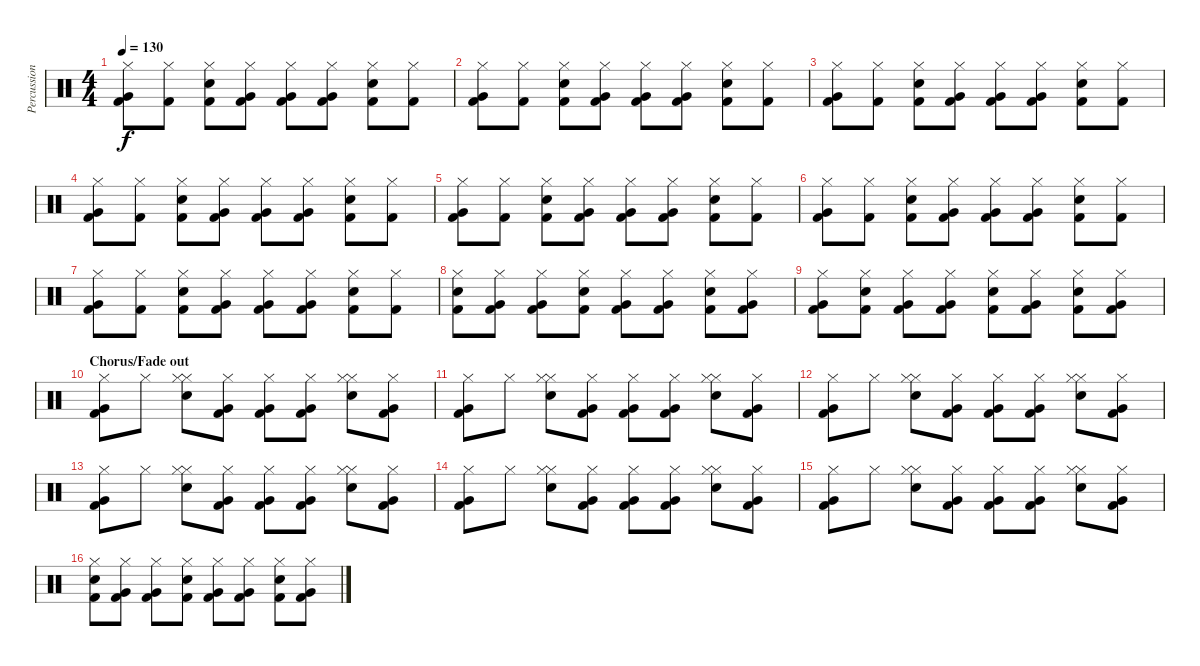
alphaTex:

\track ("Percussion" "Percussion") {instrument percussion}
\staff {score}
\articulation defaults
\ts (4 4)
\tempo 130
\clef neutral
\ks c
("Hi-Hat (closed)" "Very Low Tom (hit)" "Kick (hit) 2").8{dy f} ("Hi-Hat (closed)" "Kick (hit) 2").8 ("Hi-Hat (closed)" "Snare (hit) 2" "Kick (hit) 2").8 ("Hi-Hat (closed)" "Very Low Tom (hit)" "Kick (hit) 2").8 ("Hi-Hat (closed)" "Very Low Tom (hit)" "Kick (hit) 2").8 ("Hi-Hat (closed)" "Very Low Tom (hit)" "Kick (hit) 2").8 ("Hi-Hat (closed)" "Snare (hit) 2" "Kick (hit) 2").8 ("Hi-Hat (closed)" "Kick (hit) 2").8 |
("Hi-Hat (closed)" "Very Low Tom (hit)" "Kick (hit) 2").8 ("Hi-Hat (closed)" "Kick (hit) 2").8 ("Hi-Hat (closed)" "Snare (hit) 2" "Kick (hit) 2").8 ("Hi-Hat (closed)" "Very Low Tom (hit)" "Kick (hit) 2").8 ("Hi-Hat (closed)" "Very Low Tom (hit)" "Kick (hit) 2").8 ("Hi-Hat (closed)" "Very Low Tom (hit)" "Kick (hit) 2").8 ("Hi-Hat (closed)" "Snare (hit) 2" "Kick (hit) 2").8 ("Hi-Hat (closed)" "Kick (hit) 2").8 |
("Hi-Hat (closed)" "Very Low Tom (hit)" "Kick (hit) 2").8 ("Hi-Hat (closed)" "Kick (hit) 2").8 ("Hi-Hat (closed)" "Snare (hit) 2" "Kick (hit) 2").8 ("Hi-Hat (closed)" "Very Low Tom (hit)" "Kick (hit) 2").8 ("Hi-Hat (closed)" "Very Low Tom (hit)" "Kick (hit) 2").8 ("Hi-Hat (closed)" "Very Low Tom (hit)" "Kick (hit) 2").8 ("Hi-Hat (closed)" "Snare (hit) 2" "Kick (hit) 2").8 ("Hi-Hat (closed)" "Kick (hit) 2").8 |
("Hi-Hat (closed)" "Very Low Tom (hit)" "Kick (hit) 2").8 ("Hi-Hat (closed)" "Kick (hit) 2").8 ("Hi-Hat (closed)" "Snare (hit) 2" "Kick (hit) 2").8 ("Hi-Hat (closed)" "Very Low Tom (hit)" "Kick (hit) 2").8 ("Hi-Hat (closed)" "Very Low Tom (hit)" "Kick (hit) 2").8 ("Hi-Hat (closed)" "Very Low Tom (hit)" "Kick (hit) 2").8 ("Hi-Hat (closed)" "Snare (hit) 2" "Kick (hit) 2").8 ("Hi-Hat (closed)" "Kick (hit) 2").8 |
("Hi-Hat (closed)" "Very Low Tom (hit)" "Kick (hit) 2").8 ("Hi-Hat (closed)" "Kick (hit) 2").8 ("Hi-Hat (closed)" "Snare (hit) 2" "Kick (hit) 2").8 ("Hi-Hat (closed)" "Very Low Tom (hit)" "Kick (hit) 2").8 ("Hi-Hat (closed)" "Very Low Tom (hit)" "Kick (hit) 2").8 ("Hi-Hat (closed)" "Very Low Tom (hit)" "Kick (hit) 2").8 ("Hi-Hat (closed)" "Snare (hit) 2" "Kick (hit) 2").8 ("Hi-Hat (closed)" "Kick (hit) 2").8 |
("Hi-Hat (closed)" "Very Low Tom (hit)" "Kick (hit) 2").8 ("Hi-Hat (closed)" "Kick (hit) 2").8 ("Hi-Hat (closed)" "Snare (hit) 2" "Kick (hit) 2").8 ("Hi-Hat (closed)" "Very Low Tom (hit)" "Kick (hit) 2").8 ("Hi-Hat (closed)" "Very Low Tom (hit)" "Kick (hit) 2").8 ("Hi-Hat (closed)" "Very Low Tom (hit)" "Kick (hit) 2").8 ("Hi-Hat (closed)" "Snare (hit) 2" "Kick (hit) 2").8 ("Hi-Hat (closed)" "Kick (hit) 2").8 |
("Hi-Hat (closed)" "Very Low Tom (hit)" "Kick (hit) 2").8 ("Hi-Hat (closed)" "Kick (hit) 2").8 ("Hi-Hat (closed)" "Snare (hit) 2" "Kick (hit) 2").8 ("Hi-Hat (closed)" "Very Low Tom (hit)" "Kick (hit) 2").8 ("Hi-Hat (closed)" "Very Low Tom (hit)" "Kick (hit) 2").8 ("Hi-Hat (closed)" "Very Low Tom (hit)" "Kick (hit) 2").8 ("Hi-Hat (closed)" "Snare (hit) 2" "Kick (hit) 2").8 ("Hi-Hat (closed)" "Kick (hit) 2").8 |
("Hi-Hat (closed)" "Snare (hit) 2" "Kick (hit) 2").8 ("Hi-Hat (closed)" "Very Low Tom (hit)" "Kick (hit) 2").8 ("Hi-Hat (closed)" "Very Low Tom (hit)" "Kick (hit) 2").8 ("Hi-Hat (closed)" "Snare (hit) 2" "Kick (hit) 2").8 ("Hi-Hat (closed)" "Very Low Tom (hit)" "Kick (hit) 2").8 ("Hi-Hat (closed)" "Very Low Tom (hit)" "Kick (hit) 2").8 ("Hi-Hat (closed)" "Snare (hit) 2" "Kick (hit) 2").8 ("Hi-Hat (closed)" "Very Low Tom (hit)" "Kick (hit) 2").8 |
("Hi-Hat (closed)" "Very Low Tom (hit)" "Kick (hit) 2").8 ("Hi-Hat (closed)" "Snare (hit) 2" "Kick (hit) 2").8 ("Hi-Hat (closed)" "Very Low Tom (hit)" "Kick (hit) 2").8 ("Hi-Hat (closed)" "Very Low Tom (hit)" "Kick (hit) 2").8 ("Hi-Hat (closed)" "Snare (hit) 2" "Kick (hit) 2").8 ("Hi-Hat (closed)" "Very Low Tom (hit)" "Kick (hit) 2").8 ("Hi-Hat (closed)" "Snare (hit) 2" "Kick (hit) 2").8 ("Hi-Hat (closed)" "Very Low Tom (hit)" "Kick (hit) 2").8 |
\section ("" "Chorus/Fade out")
("Hi-Hat (closed)" "Very Low Tom (hit)" "Kick (hit) 2").8 "Hi-Hat (closed)".8 ("Hi-Hat (closed)" "Hi-Hat (closed)" "Snare (hit) 2").8 ("Hi-Hat (closed)" "Very Low Tom (hit)" "Kick (hit) 2").8 ("Hi-Hat (closed)" "Very Low Tom (hit)" "Kick (hit) 2").8 ("Hi-Hat (closed)" "Very Low Tom (hit)" "Kick (hit) 2").8 ("Hi-Hat (closed)" "Hi-Hat (closed)" "Snare (hit) 2").8 ("Hi-Hat (closed)" "Very Low Tom (hit)" "Kick (hit) 2").8 |
("Hi-Hat (closed)" "Very Low Tom (hit)" "Kick (hit) 2").8 "Hi-Hat (closed)".8 ("Hi-Hat (closed)" "Hi-Hat (closed)" "Snare (hit) 2").8 ("Hi-Hat (closed)" "Very Low Tom (hit)" "Kick (hit) 2").8 ("Hi-Hat (closed)" "Very Low Tom (hit)" "Kick (hit) 2").8 ("Hi-Hat (closed)" "Very Low Tom (hit)" "Kick (hit) 2").8 ("Hi-Hat (closed)" "Hi-Hat (closed)" "Snare (hit) 2").8 ("Hi-Hat (closed)" "Very Low Tom (hit)" "Kick (hit) 2").8 |
("Hi-Hat (closed)" "Very Low Tom (hit)" "Kick (hit) 2").8 "Hi-Hat (closed)".8 ("Hi-Hat (closed)" "Hi-Hat (closed)" "Snare (hit) 2").8 ("Hi-Hat (closed)" "Very Low Tom (hit)" "Kick (hit) 2").8 ("Hi-Hat (closed)" "Very Low Tom (hit)" "Kick (hit) 2").8 ("Hi-Hat (closed)" "Very Low Tom (hit)" "Kick (hit) 2").8 ("Hi-Hat (closed)" "Hi-Hat (closed)" "Snare (hit) 2").8 ("Hi-Hat (closed)" "Very Low Tom (hit)" "Kick (hit) 2").8 |
("Hi-Hat (closed)" "Very Low Tom (hit)" "Kick (hit) 2").8 "Hi-Hat (closed)".8 ("Hi-Hat (closed)" "Hi-Hat (closed)" "Snare (hit) 2").8 ("Hi-Hat (closed)" "Very Low Tom (hit)" "Kick (hit) 2").8 ("Hi-Hat (closed)" "Very Low Tom (hit)" "Kick (hit) 2").8 ("Hi-Hat (closed)" "Very Low Tom (hit)" "Kick (hit) 2").8 ("Hi-Hat (closed)" "Hi-Hat (closed)" "Snare (hit) 2").8 ("Hi-Hat (closed)" "Very Low Tom (hit)" "Kick (hit) 2").8 |
("Hi-Hat (closed)" "Very Low Tom (hit)" "Kick (hit) 2").8 "Hi-Hat (closed)".8 ("Hi-Hat (closed)" "Hi-Hat (closed)" "Snare (hit) 2").8 ("Hi-Hat (closed)" "Very Low Tom (hit)" "Kick (hit) 2").8 ("Hi-Hat (closed)" "Very Low Tom (hit)" "Kick (hit) 2").8 ("Hi-Hat (closed)" "Very Low Tom (hit)" "Kick (hit) 2").8 ("Hi-Hat (closed)" "Hi-Hat (closed)" "Snare (hit) 2").8 ("Hi-Hat (closed)" "Very Low Tom (hit)" "Kick (hit) 2").8 |
("Hi-Hat (closed)" "Very Low Tom (hit)" "Kick (hit) 2").8 "Hi-Hat (closed)".8 ("Hi-Hat (closed)" "Hi-Hat (closed)" "Snare (hit) 2").8 ("Hi-Hat (closed)" "Very Low Tom (hit)" "Kick (hit) 2").8 ("Hi-Hat (closed)" "Very Low Tom (hit)" "Kick (hit) 2").8 ("Hi-Hat (closed)" "Very Low Tom (hit)" "Kick (hit) 2").8 ("Hi-Hat (closed)" "Hi-Hat (closed)" "Snare (hit) 2").8 ("Hi-Hat (closed)" "Very Low Tom (hit)" "Kick (hit) 2").8 |
("Hi-Hat (closed)" "Snare (hit) 2" "Kick (hit) 2").8 ("Hi-Hat (closed)" "Very Low Tom (hit)" "Kick (hit) 2").8 ("Hi-Hat (closed)" "Very Low Tom (hit)" "Kick (hit) 2").8 ("Hi-Hat (closed)" "Snare (hit) 2" "Kick (hit) 2").8 ("Hi-Hat (closed)" "Very Low Tom (hit)" "Kick (hit) 2").8 ("Hi-Hat (closed)" "Very Low Tom (hit)" "Kick (hit) 2").8 ("Hi-Hat (closed)" "Snare (hit) 2" "Kick (hit) 2").8 ("Hi-Hat (closed)" "Very Low Tom (hit)" "Kick (hit) 2").8
